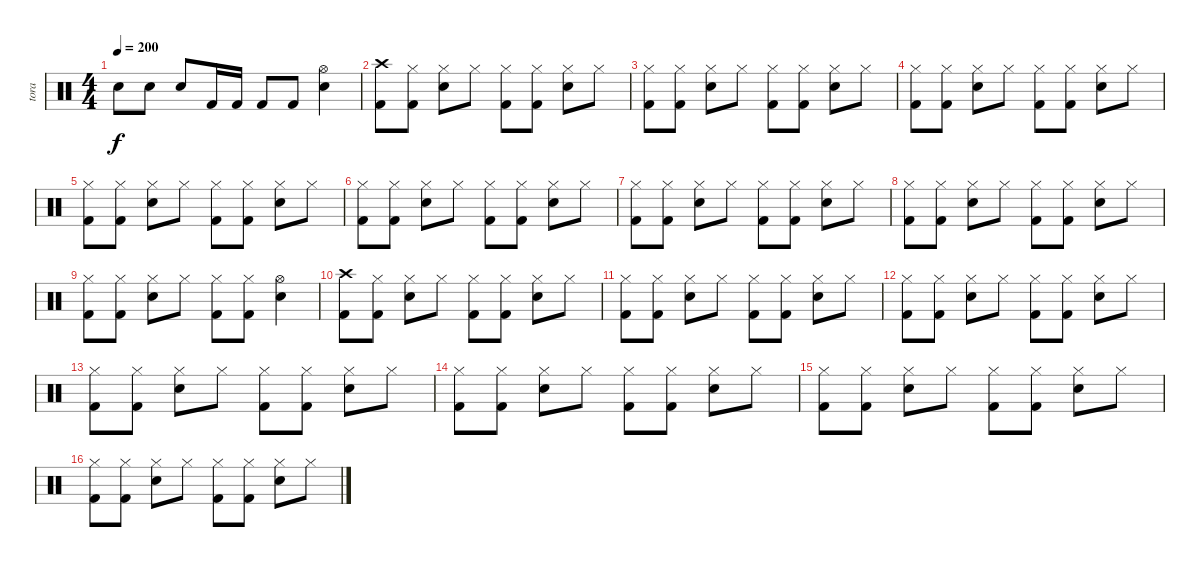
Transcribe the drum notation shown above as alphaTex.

\track ("tora" "tora") {instrument percussion}
\staff {score}
\articulation defaults
\ts (4 4)
\tempo 200
\clef neutral
\ks c "Snare (hit) 2".8{dy f} "Snare (hit) 2".8 "Snare (hit) 2".8 "Kick (hit) 2".16 "Kick (hit) 2".16 "Kick (hit) 2".8 "Kick (hit) 2".8
("Hi-Hat (open)" "Snare (hit) 2").4 |
("Crash high (hit)" "Kick (hit) 2").8 ("Hi-Hat (closed)" "Kick (hit) 2").8 ("Hi-Hat (closed)" "Snare (hit) 2").8 "Hi-Hat (closed)".8 ("Hi-Hat (closed)" "Kick (hit) 2").8 ("Hi-Hat (closed)" "Kick (hit) 2").8 ("Hi-Hat (closed)" "Snare (hit) 2").8 "Hi-Hat (closed)".8 |
("Hi-Hat (closed)" "Kick (hit) 2").8 ("Hi-Hat (closed)" "Kick (hit) 2").8 ("Hi-Hat (closed)" "Snare (hit) 2").8 "Hi-Hat (closed)".8 ("Hi-Hat (closed)" "Kick (hit) 2").8 ("Hi-Hat (closed)" "Kick (hit) 2").8 ("Hi-Hat (closed)" "Snare (hit) 2").8 "Hi-Hat (closed)".8 |
("Hi-Hat (closed)" "Kick (hit) 2").8 ("Hi-Hat (closed)" "Kick (hit) 2").8 ("Hi-Hat (closed)" "Snare (hit) 2").8 "Hi-Hat (closed)".8 ("Hi-Hat (closed)" "Kick (hit) 2").8 ("Hi-Hat (closed)" "Kick (hit) 2").8 ("Hi-Hat (closed)" "Snare (hit) 2").8 "Hi-Hat (closed)".8 |
("Hi-Hat (closed)" "Kick (hit) 2").8 ("Hi-Hat (closed)" "Kick (hit) 2").8 ("Hi-Hat (closed)" "Snare (hit) 2").8 "Hi-Hat (closed)".8 ("Hi-Hat (closed)" "Kick (hit) 2").8 ("Hi-Hat (closed)" "Kick (hit) 2").8 ("Hi-Hat (closed)" "Snare (hit) 2").8 "Hi-Hat (closed)".8 |
("Hi-Hat (closed)" "Kick (hit) 2").8 ("Hi-Hat (closed)" "Kick (hit) 2").8 ("Hi-Hat (closed)" "Snare (hit) 2").8 "Hi-Hat (closed)".8 ("Hi-Hat (closed)" "Kick (hit) 2").8 ("Hi-Hat (closed)" "Kick (hit) 2").8 ("Hi-Hat (closed)" "Snare (hit) 2").8 "Hi-Hat (closed)".8 |
("Hi-Hat (closed)" "Kick (hit) 2").8 ("Hi-Hat (closed)" "Kick (hit) 2").8 ("Hi-Hat (closed)" "Snare (hit) 2").8 "Hi-Hat (closed)".8 ("Hi-Hat (closed)" "Kick (hit) 2").8 ("Hi-Hat (closed)" "Kick (hit) 2").8 ("Hi-Hat (closed)" "Snare (hit) 2").8 "Hi-Hat (closed)".8 |
("Hi-Hat (closed)" "Kick (hit) 2").8 ("Hi-Hat (closed)" "Kick (hit) 2").8 ("Hi-Hat (closed)" "Snare (hit) 2").8 "Hi-Hat (closed)".8 ("Hi-Hat (closed)" "Kick (hit) 2").8 ("Hi-Hat (closed)" "Kick (hit) 2").8 ("Hi-Hat (closed)" "Snare (hit) 2").8 "Hi-Hat (closed)".8 |
("Hi-Hat (closed)" "Kick (hit) 2").8 ("Hi-Hat (closed)" "Kick (hit) 2").8 ("Hi-Hat (closed)" "Snare (hit) 2").8 "Hi-Hat (closed)".8 ("Hi-Hat (closed)" "Kick (hit) 2").8 ("Hi-Hat (closed)" "Kick (hit) 2").8 ("Hi-Hat (open)" "Snare (hit) 2").4 |
("Crash high (hit)" "Kick (hit) 2").8 ("Hi-Hat (closed)" "Kick (hit) 2").8 ("Hi-Hat (closed)" "Snare (hit) 2").8 "Hi-Hat (closed)".8 ("Hi-Hat (closed)" "Kick (hit) 2").8 ("Hi-Hat (closed)" "Kick (hit) 2").8 ("Hi-Hat (closed)" "Snare (hit) 2").8 "Hi-Hat (closed)".8 |
("Hi-Hat (closed)" "Kick (hit) 2").8 ("Hi-Hat (closed)" "Kick (hit) 2").8 ("Hi-Hat (closed)" "Snare (hit) 2").8 "Hi-Hat (closed)".8 ("Hi-Hat (closed)" "Kick (hit) 2").8 ("Hi-Hat (closed)" "Kick (hit) 2").8 ("Hi-Hat (closed)" "Snare (hit) 2").8 "Hi-Hat (closed)".8 |
("Hi-Hat (closed)" "Kick (hit) 2").8 ("Hi-Hat (closed)" "Kick (hit) 2").8 ("Hi-Hat (closed)" "Snare (hit) 2").8 "Hi-Hat (closed)".8 ("Hi-Hat (closed)" "Kick (hit) 2").8 ("Hi-Hat (closed)" "Kick (hit) 2").8 ("Hi-Hat (closed)" "Snare (hit) 2").8 "Hi-Hat (closed)".8 |
("Hi-Hat (closed)" "Kick (hit) 2").8 ("Hi-Hat (closed)" "Kick (hit) 2").8 ("Hi-Hat (closed)" "Snare (hit) 2").8 "Hi-Hat (closed)".8 ("Hi-Hat (closed)" "Kick (hit) 2").8 ("Hi-Hat (closed)" "Kick (hit) 2").8 ("Hi-Hat (closed)" "Snare (hit) 2").8 "Hi-Hat (closed)".8 |
("Hi-Hat (closed)" "Kick (hit) 2").8 ("Hi-Hat (closed)" "Kick (hit) 2").8 ("Hi-Hat (closed)" "Snare (hit) 2").8 "Hi-Hat (closed)".8 ("Hi-Hat (closed)" "Kick (hit) 2").8 ("Hi-Hat (closed)" "Kick (hit) 2").8 ("Hi-Hat (closed)" "Snare (hit) 2").8 "Hi-Hat (closed)".8 |
("Hi-Hat (closed)" "Kick (hit) 2").8 ("Hi-Hat (closed)" "Kick (hit) 2").8 ("Hi-Hat (closed)" "Snare (hit) 2").8 "Hi-Hat (closed)".8 ("Hi-Hat (closed)" "Kick (hit) 2").8 ("Hi-Hat (closed)" "Kick (hit) 2").8 ("Hi-Hat (closed)" "Snare (hit) 2").8 "Hi-Hat (closed)".8 |
("Hi-Hat (closed)" "Kick (hit) 2").8 ("Hi-Hat (closed)" "Kick (hit) 2").8 ("Hi-Hat (closed)" "Snare (hit) 2").8 "Hi-Hat (closed)".8 ("Hi-Hat (closed)" "Kick (hit) 2").8 ("Hi-Hat (closed)" "Kick (hit) 2").8 ("Hi-Hat (closed)" "Snare (hit) 2").8 "Hi-Hat (closed)".8
